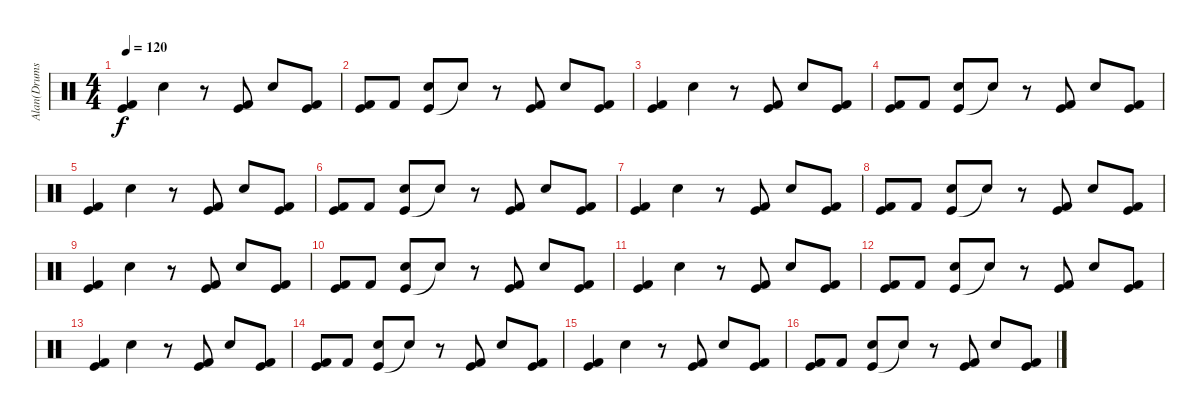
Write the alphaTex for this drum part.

\track ("Alan(Drums)" "Alan(Drums") {instrument percussion}
\staff {score}
\articulation defaults
\ts (4 4)
\tempo 120
\clef neutral
\ks c
("Kick (hit) 2" "Kick (hit)").4{dy f} "Electric Snare (hit)".4 r.8 ("Kick (hit)" "Kick (hit) 2").8 "Electric Snare (hit)".8 ("Kick (hit)" "Kick (hit) 2").8 |
("Kick (hit)" "Kick (hit) 2").8 "Kick (hit) 2".8 ("Kick (hit)" "Electric Snare (hit)").8 "Snare (hit)"{t}.8 r.8 ("Kick (hit)" "Kick (hit) 2").8 "Electric Snare (hit)".8 ("Kick (hit)" "Kick (hit) 2").8 |
("Kick (hit) 2" "Kick (hit)").4 "Electric Snare (hit)".4 r.8 ("Kick (hit)" "Kick (hit) 2").8 "Electric Snare (hit)".8 ("Kick (hit)" "Kick (hit) 2").8 |
("Kick (hit)" "Kick (hit) 2").8 "Kick (hit) 2".8 ("Kick (hit)" "Electric Snare (hit)").8 "Snare (hit)"{t}.8 r.8 ("Kick (hit)" "Kick (hit) 2").8 "Electric Snare (hit)".8 ("Kick (hit)" "Kick (hit) 2").8 |
("Kick (hit) 2" "Kick (hit)").4 "Electric Snare (hit)".4 r.8 ("Kick (hit)" "Kick (hit) 2").8 "Electric Snare (hit)".8 ("Kick (hit)" "Kick (hit) 2").8 |
("Kick (hit)" "Kick (hit) 2").8 "Kick (hit) 2".8 ("Kick (hit)" "Electric Snare (hit)").8 "Snare (hit)"{t}.8 r.8 ("Kick (hit)" "Kick (hit) 2").8 "Electric Snare (hit)".8 ("Kick (hit)" "Kick (hit) 2").8 |
("Kick (hit) 2" "Kick (hit)").4 "Electric Snare (hit)".4 r.8 ("Kick (hit)" "Kick (hit) 2").8 "Electric Snare (hit)".8 ("Kick (hit)" "Kick (hit) 2").8 |
("Kick (hit)" "Kick (hit) 2").8 "Kick (hit) 2".8 ("Kick (hit)" "Electric Snare (hit)").8 "Snare (hit)"{t}.8 r.8 ("Kick (hit)" "Kick (hit) 2").8 "Electric Snare (hit)".8 ("Kick (hit)" "Kick (hit) 2").8 |
("Kick (hit) 2" "Kick (hit)").4 "Electric Snare (hit)".4 r.8 ("Kick (hit)" "Kick (hit) 2").8 "Electric Snare (hit)".8 ("Kick (hit)" "Kick (hit) 2").8 |
("Kick (hit)" "Kick (hit) 2").8 "Kick (hit) 2".8 ("Kick (hit)" "Electric Snare (hit)").8 "Snare (hit)"{t}.8 r.8 ("Kick (hit)" "Kick (hit) 2").8 "Electric Snare (hit)".8 ("Kick (hit)" "Kick (hit) 2").8 |
("Kick (hit) 2" "Kick (hit)").4 "Electric Snare (hit)".4 r.8 ("Kick (hit)" "Kick (hit) 2").8 "Electric Snare (hit)".8 ("Kick (hit)" "Kick (hit) 2").8 |
("Kick (hit)" "Kick (hit) 2").8 "Kick (hit) 2".8 ("Kick (hit)" "Electric Snare (hit)").8 "Snare (hit)"{t}.8 r.8 ("Kick (hit)" "Kick (hit) 2").8 "Electric Snare (hit)".8 ("Kick (hit)" "Kick (hit) 2").8 |
("Kick (hit) 2" "Kick (hit)").4 "Electric Snare (hit)".4 r.8 ("Kick (hit)" "Kick (hit) 2").8 "Electric Snare (hit)".8 ("Kick (hit)" "Kick (hit) 2").8 |
("Kick (hit)" "Kick (hit) 2").8 "Kick (hit) 2".8 ("Kick (hit)" "Electric Snare (hit)").8 "Snare (hit)"{t}.8 r.8 ("Kick (hit)" "Kick (hit) 2").8 "Electric Snare (hit)".8 ("Kick (hit)" "Kick (hit) 2").8 |
("Kick (hit) 2" "Kick (hit)").4 "Electric Snare (hit)".4 r.8 ("Kick (hit)" "Kick (hit) 2").8 "Electric Snare (hit)".8 ("Kick (hit)" "Kick (hit) 2").8 |
("Kick (hit)" "Kick (hit) 2").8 "Kick (hit) 2".8 ("Kick (hit)" "Electric Snare (hit)").8 "Snare (hit)"{t}.8 r.8 ("Kick (hit)" "Kick (hit) 2").8 "Electric Snare (hit)".8 ("Kick (hit)" "Kick (hit) 2").8
